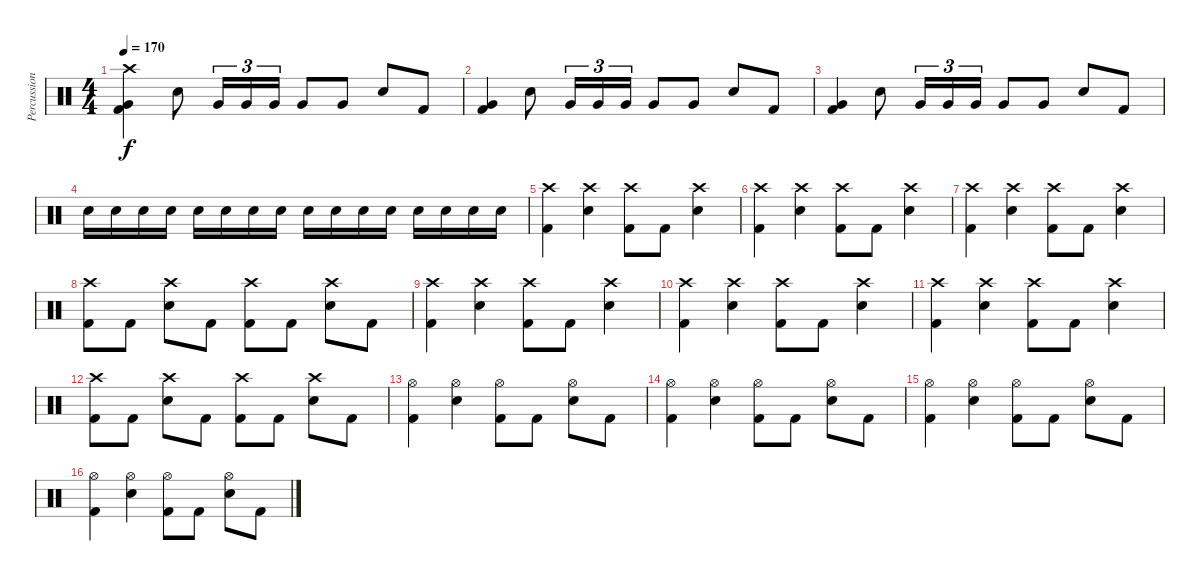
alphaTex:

\track ("Percussion" "Percussion") {instrument percussion}
\staff {score}
\articulation defaults
\ts (4 4)
\tempo 170
\clef neutral
\ks c
("Crash high (hit)" "Very Low Tom (hit)" "Kick (hit) 2").4{dy f} "Snare (hit) 2".8 "Very Low Tom (hit)".16{tu (3 2)} "Very Low Tom (hit)".16{tu (3 2)} "Very Low Tom (hit)".16{tu (3 2)} "Very Low Tom (hit)".8 "Very Low Tom (hit)".8 "Snare (hit) 2".8 "Kick (hit) 2".8 |
("Very Low Tom (hit)" "Kick (hit) 2").4 "Snare (hit) 2".8 "Very Low Tom (hit)".16{tu (3 2)} "Very Low Tom (hit)".16{tu (3 2)} "Very Low Tom (hit)".16{tu (3 2)} "Very Low Tom (hit)".8 "Very Low Tom (hit)".8 "Snare (hit) 2".8 "Kick (hit) 2".8 |
("Very Low Tom (hit)" "Kick (hit) 2").4 "Snare (hit) 2".8 "Very Low Tom (hit)".16{tu (3 2)} "Very Low Tom (hit)".16{tu (3 2)} "Very Low Tom (hit)".16{tu (3 2)} "Very Low Tom (hit)".8 "Very Low Tom (hit)".8 "Snare (hit) 2".8 "Kick (hit) 2".8 |
"Snare (hit) 2".16 "Snare (hit) 2".16 "Snare (hit) 2".16 "Snare (hit) 2".16 "Snare (hit) 2".16 "Snare (hit) 2".16 "Snare (hit) 2".16 "Snare (hit) 2".16 "Snare (hit) 2".16 "Snare (hit) 2".16 "Snare (hit) 2".16 "Snare (hit) 2".16 "Snare (hit) 2".16 "Snare (hit) 2".16 "Snare (hit) 2".16 "Snare (hit) 2".16 |
("Crash high (hit)" "Kick (hit) 2").4 ("Crash high (hit)" "Electric Snare (hit)").4 ("Crash high (hit)" "Kick (hit) 2").8 "Kick (hit) 2".8 ("Crash high (hit)" "Electric Snare (hit)").4 |
("Crash high (hit)" "Kick (hit) 2").4 ("Crash high (hit)" "Electric Snare (hit)").4 ("Crash high (hit)" "Kick (hit) 2").8 "Kick (hit) 2".8 ("Crash high (hit)" "Electric Snare (hit)").4 |
("Crash high (hit)" "Kick (hit) 2").4 ("Crash high (hit)" "Electric Snare (hit)").4 ("Crash high (hit)" "Kick (hit) 2").8 "Kick (hit) 2".8 ("Crash high (hit)" "Electric Snare (hit)").4 |
("Crash high (hit)" "Kick (hit) 2").8 "Kick (hit) 2".8 ("Crash high (hit)" "Electric Snare (hit)").8 "Kick (hit) 2".8 ("Crash high (hit)" "Kick (hit) 2").8 "Kick (hit) 2".8 ("Crash high (hit)" "Electric Snare (hit)").8 "Kick (hit) 2".8 |
("Crash high (hit)" "Kick (hit) 2").4 ("Crash high (hit)" "Electric Snare (hit)").4 ("Crash high (hit)" "Kick (hit) 2").8 "Kick (hit) 2".8 ("Crash high (hit)" "Electric Snare (hit)").4 |
("Crash high (hit)" "Kick (hit) 2").4 ("Crash high (hit)" "Electric Snare (hit)").4 ("Crash high (hit)" "Kick (hit) 2").8 "Kick (hit) 2".8 ("Crash high (hit)" "Electric Snare (hit)").4 |
("Crash high (hit)" "Kick (hit) 2").4 ("Crash high (hit)" "Electric Snare (hit)").4 ("Crash high (hit)" "Kick (hit) 2").8 "Kick (hit) 2".8 ("Crash high (hit)" "Electric Snare (hit)").4 |
("Crash high (hit)" "Kick (hit) 2").8 "Kick (hit) 2".8 ("Crash high (hit)" "Electric Snare (hit)").8 "Kick (hit) 2".8 ("Crash high (hit)" "Kick (hit) 2").8 "Kick (hit) 2".8 ("Crash high (hit)" "Electric Snare (hit)").8 "Kick (hit) 2".8 |
("Hi-Hat (open)" "Kick (hit) 2").4 ("Hi-Hat (open)" "Electric Snare (hit)").4 ("Hi-Hat (open)" "Kick (hit) 2").8 "Kick (hit) 2".8 ("Hi-Hat (open)" "Electric Snare (hit)").8 "Kick (hit) 2".8 |
("Hi-Hat (open)" "Kick (hit) 2").4 ("Hi-Hat (open)" "Electric Snare (hit)").4 ("Hi-Hat (open)" "Kick (hit) 2").8 "Kick (hit) 2".8 ("Hi-Hat (open)" "Electric Snare (hit)").8 "Kick (hit) 2".8 |
("Hi-Hat (open)" "Kick (hit) 2").4 ("Hi-Hat (open)" "Electric Snare (hit)").4 ("Hi-Hat (open)" "Kick (hit) 2").8 "Kick (hit) 2".8 ("Hi-Hat (open)" "Electric Snare (hit)").8 "Kick (hit) 2".8 |
("Hi-Hat (open)" "Kick (hit) 2").4 ("Hi-Hat (open)" "Electric Snare (hit)").4 ("Hi-Hat (open)" "Kick (hit) 2").8 "Kick (hit) 2".8 ("Hi-Hat (open)" "Electric Snare (hit)").8 "Kick (hit) 2".8
